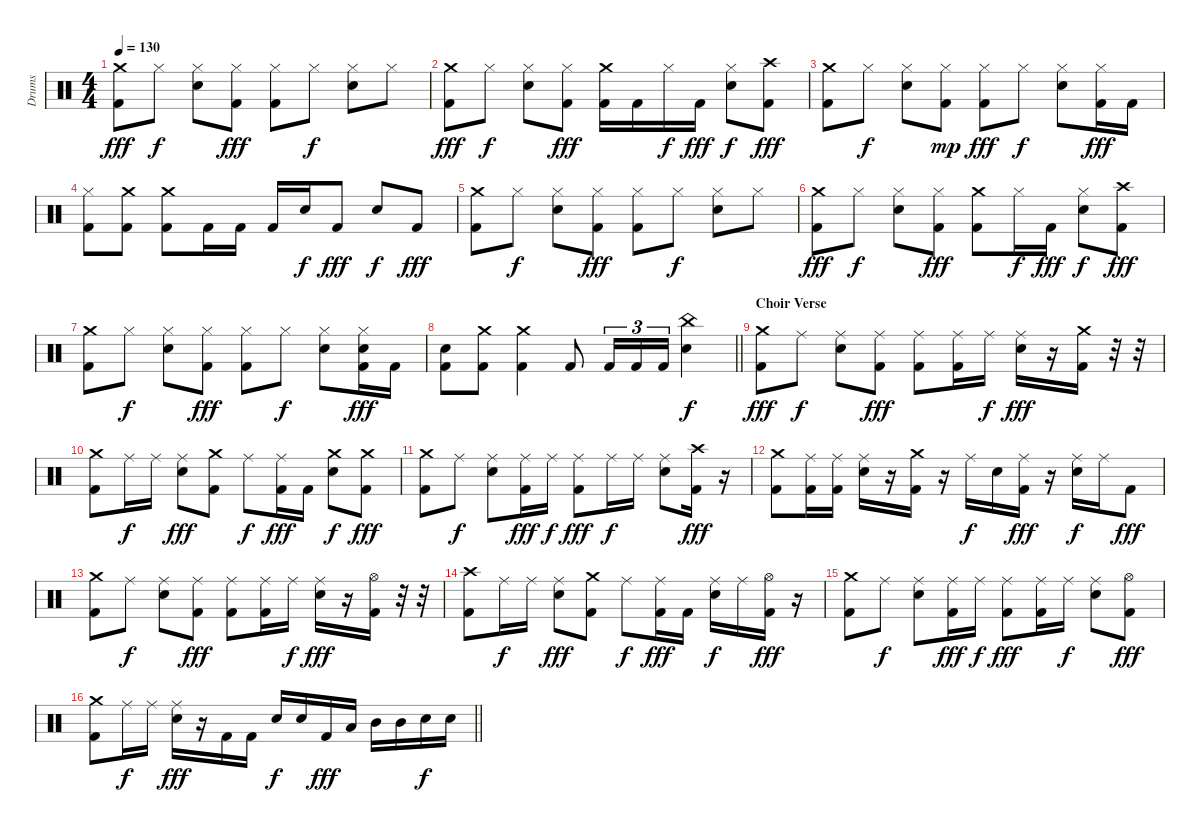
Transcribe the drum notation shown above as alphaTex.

\track ("Drums" "Drums") {instrument percussion}
\staff {score}
\articulation defaults
\ts (4 4)
\tempo 130
\clef neutral
\ks c
("Crash medium (hit)" "Kick (hit) 2").8{dy fff} "Hi-Hat (closed)".8{dy f} ("Hi-Hat (closed)" "Snare (hit) 2").8 ("Hi-Hat (closed)" "Kick (hit) 2").8{dy fff} ("Hi-Hat (closed)" "Kick (hit) 2").8 "Hi-Hat (closed)".8{dy f} ("Hi-Hat (closed)" "Snare (hit) 2").8 "Hi-Hat (closed)".8 |
("Crash medium (hit)" "Kick (hit) 2").8{dy fff} "Hi-Hat (closed)".8{dy f} ("Hi-Hat (closed)" "Snare (hit) 2").8 ("Hi-Hat (closed)" "Kick (hit) 2").8{dy fff} ("Crash medium (hit)" "Kick (hit) 2").16 "Kick (hit) 2".16 "Hi-Hat (closed)".16{dy f} "Kick (hit) 2".16{dy fff} ("Hi-Hat (closed)" "Snare (hit) 2").8{dy f} ("Crash high (hit)" "Kick (hit) 2").8{dy fff} |
("Crash medium (hit)" "Kick (hit) 2").8 "Hi-Hat (closed)".8{dy f} ("Hi-Hat (closed)" "Snare (hit) 2").8 ("Hi-Hat (closed)" "Kick (hit) 2").8{dy mp} ("Hi-Hat (closed)" "Kick (hit) 2").8{dy fff} "Hi-Hat (closed)".8{dy f} ("Hi-Hat (closed)" "Snare (hit) 2").8 ("Hi-Hat (closed)" "Kick (hit) 2").16{dy fff} "Kick (hit) 2".16 |
("Hi-Hat (closed)" "Kick (hit) 2").8 ("Crash medium (hit)" "Kick (hit) 2").8 ("Crash medium (hit)" "Kick (hit) 2").8 "Kick (hit) 2".16 "Kick (hit) 2".16 "Kick (hit) 2".16 "Snare (hit) 2".16{dy f} "Kick (hit) 2".8{dy fff} "Snare (hit) 2".8{dy f} "Kick (hit) 2".8{dy fff} |
("Crash medium (hit)" "Kick (hit) 2").8 "Hi-Hat (closed)".8{dy f} ("Hi-Hat (closed)" "Snare (hit) 2").8 ("Hi-Hat (closed)" "Kick (hit) 2").8{dy fff} ("Hi-Hat (closed)" "Kick (hit) 2").8 "Hi-Hat (closed)".8{dy f} ("Hi-Hat (closed)" "Snare (hit) 2").8 "Hi-Hat (closed)".8 |
("Crash medium (hit)" "Kick (hit) 2").8{dy fff} "Hi-Hat (closed)".8{dy f} ("Hi-Hat (closed)" "Snare (hit) 2").8 ("Hi-Hat (closed)" "Kick (hit) 2").8{dy fff} ("Crash medium (hit)" "Kick (hit) 2").8 "Hi-Hat (closed)".16{dy f} "Kick (hit) 2".16{dy fff} ("Hi-Hat (closed)" "Snare (hit) 2").8{dy f} ("Crash high (hit)" "Kick (hit) 2").8{dy fff} |
("Crash medium (hit)" "Kick (hit) 2").8 "Hi-Hat (closed)".8{dy f} ("Hi-Hat (closed)" "Snare (hit) 2").8 ("Hi-Hat (closed)" "Kick (hit) 2").8{dy fff} ("Hi-Hat (closed)" "Kick (hit) 2").8 "Hi-Hat (closed)".8{dy f} ("Hi-Hat (closed)" "Snare (hit) 2").8 ("Hi-Hat (closed)" "Snare (hit) 2" "Kick (hit) 2").16{dy fff} "Kick (hit) 2".16 |
\barLineRight lightlight
("Snare (hit) 2" "Kick (hit) 2").8 ("Crash medium (hit)" "Kick (hit) 2").8 ("Crash medium (hit)" "Kick (hit) 2").4 "Kick (hit) 2".8 "Kick (hit) 2".16{tu (3 2)} "Kick (hit) 2".16{tu (3 2)} "Kick (hit) 2".16{tu (3 2)} ("China (hit)" "Snare (hit) 2").4{dy f} |
\section ("" "Choir Verse")
("Crash medium (hit)" "Kick (hit) 2").8{dy fff} "Ride (middle)".8{dy f} ("Ride (middle)" "Snare (hit) 2").8 ("Ride (middle)" "Kick (hit) 2").8{dy fff} ("Ride (middle)" "Kick (hit) 2").8 ("Ride (middle)" "Kick (hit) 2").16 "Ride (middle)".16{dy f} ("Ride (middle)" "Snare (hit) 2").16{dy fff} r.16 ("Crash medium (hit)" "Kick (hit) 2").16 r.32 r.32 |
("Crash medium (hit)" "Kick (hit) 2").8 "Ride (middle)".16{dy f} "Ride (middle)".16 ("Ride (middle)" "Snare (hit) 2").8{dy fff} ("Crash medium (hit)" "Kick (hit) 2").8 "Ride (middle)".8{dy f} ("Ride (middle)" "Kick (hit) 2").16{dy fff} "Kick (hit) 2".16 ("Crash medium (hit)" "Snare (hit) 2").8{dy f} ("Crash medium (hit)" "Kick (hit) 2").8{dy fff} |
("Crash medium (hit)" "Kick (hit) 2").8 "Ride (middle)".8{dy f} ("Ride (middle)" "Snare (hit) 2").8 ("Ride (middle)" "Kick (hit) 2").16{dy fff} "Ride (middle)".16{dy f} ("Ride (middle)" "Kick (hit) 2").8{dy fff} "Ride (middle)".16{dy f} "Ride (middle)".16 ("Ride (middle)" "Snare (hit) 2").8 ("Crash high (hit)" "Kick (hit) 2").16{dy fff} r.16 |
("Crash medium (hit)" "Kick (hit) 2").8 ("Ride (middle)" "Kick (hit) 2").16 ("Ride (middle)" "Kick (hit) 2").16 ("Ride (middle)" "Snare (hit) 2").16 r.16 ("Crash medium (hit)" "Kick (hit) 2").16 r.16 "Ride (middle)".16{dy f} "Snare (hit) 2".16 ("Ride (middle)" "Kick (hit) 2").16{dy fff} r.16 ("Ride (middle)" "Snare (hit) 2").16{dy f} "Ride (middle)".16 "Kick (hit) 2".8{dy fff} |
("Crash medium (hit)" "Kick (hit) 2").8 "Ride (middle)".8{dy f} ("Ride (middle)" "Snare (hit) 2").8 ("Ride (middle)" "Kick (hit) 2").8{dy fff} ("Ride (middle)" "Kick (hit) 2").8 ("Ride (middle)" "Kick (hit) 2").16 "Ride (middle)".16{dy f} ("Ride (middle)" "Snare (hit) 2").16{dy fff} r.16 ("Hi-Hat (open)" "Kick (hit) 2").16 r.32 r.32 |
("Crash high (hit)" "Kick (hit) 2").8 "Ride (middle)".16{dy f} "Ride (middle)".16 ("Ride (middle)" "Snare (hit) 2").8{dy fff} ("Crash medium (hit)" "Kick (hit) 2").8 "Ride (middle)".8{dy f} ("Ride (middle)" "Kick (hit) 2").16{dy fff} "Kick (hit) 2".16 ("Ride (middle)" "Snare (hit) 2").16{dy f} "Ride (middle)".16 ("Hi-Hat (open)" "Kick (hit) 2").16{dy fff} r.16 |
("Crash medium (hit)" "Kick (hit) 2").8 "Ride (middle)".8{dy f} ("Ride (middle)" "Snare (hit) 2").8 ("Ride (middle)" "Kick (hit) 2").16{dy fff} "Ride (middle)".16{dy f} ("Ride (middle)" "Kick (hit) 2").8{dy fff} ("Ride (middle)" "Kick (hit) 2").16 "Ride (middle)".16{dy f} ("Ride (middle)" "Snare (hit) 2").8 ("Hi-Hat (open)" "Kick (hit) 2").8{dy fff} |
\barLineRight lightlight
("Crash medium (hit)" "Kick (hit) 2").8 "Ride (middle)".16{dy f} "Ride (middle)".16 ("Ride (middle)" "Snare (hit) 2").16{dy fff} r.16 "Kick (hit) 2".16 "Kick (hit) 2".16 "Snare (hit) 2".16{dy f} "Snare (hit) 2".16 "Kick (hit) 2".16{dy fff} "Low Tom (hit)".16 "Mid Tom (hit)".16 "Mid Tom (hit)".16 "Snare (hit) 2".16{dy f} "Snare (hit) 2".16
